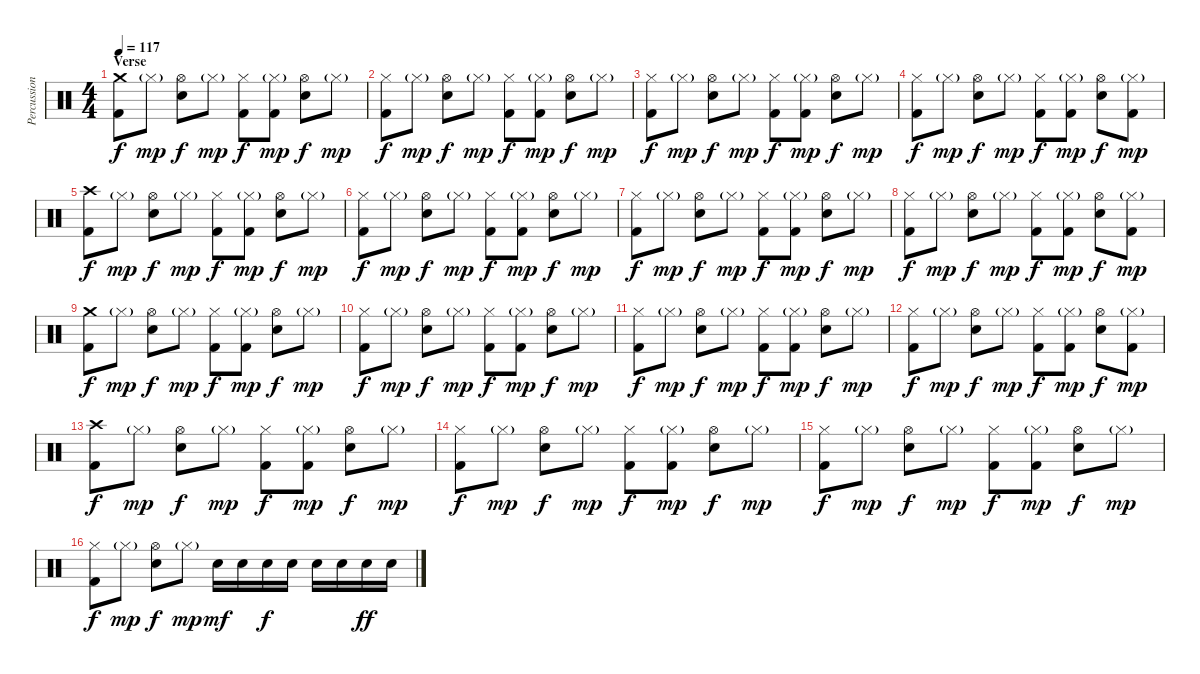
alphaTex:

\track ("Percussion" "Percussion") {instrument percussion}
\staff {score}
\articulation defaults
\ts (4 4)
\section ("" "Verse")
\tempo 117
\clef neutral
\ks c
("Crash medium (hit)" "Kick (hit) 2").8{dy f} "Hi-Hat (closed)"{g}.8{dy mp} ("Hi-Hat (open)" "Electric Snare (hit)").8{dy f} "Hi-Hat (closed)"{g}.8{dy mp} ("Hi-Hat (closed)" "Kick (hit) 2").8{dy f} ("Hi-Hat (closed)"{g} "Kick (hit) 2").8{dy mp} ("Hi-Hat (open)" "Electric Snare (hit)").8{dy f} "Hi-Hat (closed)"{g}.8{dy mp} |
("Hi-Hat (closed)" "Kick (hit) 2").8{dy f} "Hi-Hat (closed)"{g}.8{dy mp} ("Hi-Hat (open)" "Electric Snare (hit)").8{dy f} "Hi-Hat (closed)"{g}.8{dy mp} ("Hi-Hat (closed)" "Kick (hit) 2").8{dy f} ("Hi-Hat (closed)"{g} "Kick (hit) 2").8{dy mp} ("Hi-Hat (open)" "Electric Snare (hit)").8{dy f} "Hi-Hat (closed)"{g}.8{dy mp} |
("Hi-Hat (closed)" "Kick (hit) 2").8{dy f} "Hi-Hat (closed)"{g}.8{dy mp} ("Hi-Hat (open)" "Electric Snare (hit)").8{dy f} "Hi-Hat (closed)"{g}.8{dy mp} ("Hi-Hat (closed)" "Kick (hit) 2").8{dy f} ("Hi-Hat (closed)"{g} "Kick (hit) 2").8{dy mp} ("Hi-Hat (open)" "Electric Snare (hit)").8{dy f} "Hi-Hat (closed)"{g}.8{dy mp} |
("Hi-Hat (closed)" "Kick (hit) 2").8{dy f} "Hi-Hat (closed)"{g}.8{dy mp} ("Hi-Hat (open)" "Electric Snare (hit)").8{dy f} "Hi-Hat (closed)"{g}.8{dy mp} ("Hi-Hat (closed)" "Kick (hit) 2").8{dy f} ("Hi-Hat (closed)"{g} "Kick (hit) 2").8{dy mp} ("Hi-Hat (open)" "Electric Snare (hit)").8{dy f} ("Hi-Hat (closed)"{g} "Kick (hit) 2").8{dy mp} |
("Crash high (hit)" "Kick (hit) 2").8{dy f} "Hi-Hat (closed)"{g}.8{dy mp} ("Hi-Hat (open)" "Electric Snare (hit)").8{dy f} "Hi-Hat (closed)"{g}.8{dy mp} ("Hi-Hat (closed)" "Kick (hit) 2").8{dy f} ("Hi-Hat (closed)"{g} "Kick (hit) 2").8{dy mp} ("Hi-Hat (open)" "Electric Snare (hit)").8{dy f} "Hi-Hat (closed)"{g}.8{dy mp} |
("Hi-Hat (closed)" "Kick (hit) 2").8{dy f} "Hi-Hat (closed)"{g}.8{dy mp} ("Hi-Hat (open)" "Electric Snare (hit)").8{dy f} "Hi-Hat (closed)"{g}.8{dy mp} ("Hi-Hat (closed)" "Kick (hit) 2").8{dy f} ("Hi-Hat (closed)"{g} "Kick (hit) 2").8{dy mp} ("Hi-Hat (open)" "Electric Snare (hit)").8{dy f} "Hi-Hat (closed)"{g}.8{dy mp} |
("Hi-Hat (closed)" "Kick (hit) 2").8{dy f} "Hi-Hat (closed)"{g}.8{dy mp} ("Hi-Hat (open)" "Electric Snare (hit)").8{dy f} "Hi-Hat (closed)"{g}.8{dy mp} ("Hi-Hat (closed)" "Kick (hit) 2").8{dy f} ("Hi-Hat (closed)"{g} "Kick (hit) 2").8{dy mp} ("Hi-Hat (open)" "Electric Snare (hit)").8{dy f} "Hi-Hat (closed)"{g}.8{dy mp} |
("Hi-Hat (closed)" "Kick (hit) 2").8{dy f} "Hi-Hat (closed)"{g}.8{dy mp} ("Hi-Hat (open)" "Electric Snare (hit)").8{dy f} "Hi-Hat (closed)"{g}.8{dy mp} ("Hi-Hat (closed)" "Kick (hit) 2").8{dy f} ("Hi-Hat (closed)"{g} "Kick (hit) 2").8{dy mp} ("Hi-Hat (open)" "Electric Snare (hit)").8{dy f} ("Hi-Hat (closed)"{g} "Kick (hit) 2").8{dy mp} |
("Crash medium (hit)" "Kick (hit) 2").8{dy f} "Hi-Hat (closed)"{g}.8{dy mp} ("Hi-Hat (open)" "Electric Snare (hit)").8{dy f} "Hi-Hat (closed)"{g}.8{dy mp} ("Hi-Hat (closed)" "Kick (hit) 2").8{dy f} ("Hi-Hat (closed)"{g} "Kick (hit) 2").8{dy mp} ("Hi-Hat (open)" "Electric Snare (hit)").8{dy f} "Hi-Hat (closed)"{g}.8{dy mp} |
("Hi-Hat (closed)" "Kick (hit) 2").8{dy f} "Hi-Hat (closed)"{g}.8{dy mp} ("Hi-Hat (open)" "Electric Snare (hit)").8{dy f} "Hi-Hat (closed)"{g}.8{dy mp} ("Hi-Hat (closed)" "Kick (hit) 2").8{dy f} ("Hi-Hat (closed)"{g} "Kick (hit) 2").8{dy mp} ("Hi-Hat (open)" "Electric Snare (hit)").8{dy f} "Hi-Hat (closed)"{g}.8{dy mp} |
("Hi-Hat (closed)" "Kick (hit) 2").8{dy f} "Hi-Hat (closed)"{g}.8{dy mp} ("Hi-Hat (open)" "Electric Snare (hit)").8{dy f} "Hi-Hat (closed)"{g}.8{dy mp} ("Hi-Hat (closed)" "Kick (hit) 2").8{dy f} ("Hi-Hat (closed)"{g} "Kick (hit) 2").8{dy mp} ("Hi-Hat (open)" "Electric Snare (hit)").8{dy f} "Hi-Hat (closed)"{g}.8{dy mp} |
("Hi-Hat (closed)" "Kick (hit) 2").8{dy f} "Hi-Hat (closed)"{g}.8{dy mp} ("Hi-Hat (open)" "Electric Snare (hit)").8{dy f} "Hi-Hat (closed)"{g}.8{dy mp} ("Hi-Hat (closed)" "Kick (hit) 2").8{dy f} ("Hi-Hat (closed)"{g} "Kick (hit) 2").8{dy mp} ("Hi-Hat (open)" "Electric Snare (hit)").8{dy f} ("Hi-Hat (closed)"{g} "Kick (hit) 2").8{dy mp} |
("Crash high (hit)" "Kick (hit) 2").8{dy f} "Hi-Hat (closed)"{g}.8{dy mp} ("Hi-Hat (open)" "Electric Snare (hit)").8{dy f} "Hi-Hat (closed)"{g}.8{dy mp} ("Hi-Hat (closed)" "Kick (hit) 2").8{dy f} ("Hi-Hat (closed)"{g} "Kick (hit) 2").8{dy mp} ("Hi-Hat (open)" "Electric Snare (hit)").8{dy f} "Hi-Hat (closed)"{g}.8{dy mp} |
("Hi-Hat (closed)" "Kick (hit) 2").8{dy f} "Hi-Hat (closed)"{g}.8{dy mp} ("Hi-Hat (open)" "Electric Snare (hit)").8{dy f} "Hi-Hat (closed)"{g}.8{dy mp} ("Hi-Hat (closed)" "Kick (hit) 2").8{dy f} ("Hi-Hat (closed)"{g} "Kick (hit) 2").8{dy mp} ("Hi-Hat (open)" "Electric Snare (hit)").8{dy f} "Hi-Hat (closed)"{g}.8{dy mp} |
("Hi-Hat (closed)" "Kick (hit) 2").8{dy f} "Hi-Hat (closed)"{g}.8{dy mp} ("Hi-Hat (open)" "Electric Snare (hit)").8{dy f} "Hi-Hat (closed)"{g}.8{dy mp} ("Hi-Hat (closed)" "Kick (hit) 2").8{dy f} ("Hi-Hat (closed)"{g} "Kick (hit) 2").8{dy mp} ("Hi-Hat (open)" "Electric Snare (hit)").8{dy f} "Hi-Hat (closed)"{g}.8{dy mp} |
("Hi-Hat (closed)" "Kick (hit) 2").8{dy f} "Hi-Hat (closed)"{g}.8{dy mp} ("Hi-Hat (open)" "Electric Snare (hit)").8{dy f} "Hi-Hat (closed)"{g}.8{dy mp} "Electric Snare (hit)".16{dy mf} "Electric Snare (hit)".16 "Electric Snare (hit)".16{dy f} "Electric Snare (hit)".16 "Electric Snare (hit)".16 "Electric Snare (hit)".16 "Electric Snare (hit)".16{dy ff} "Electric Snare (hit)".16
